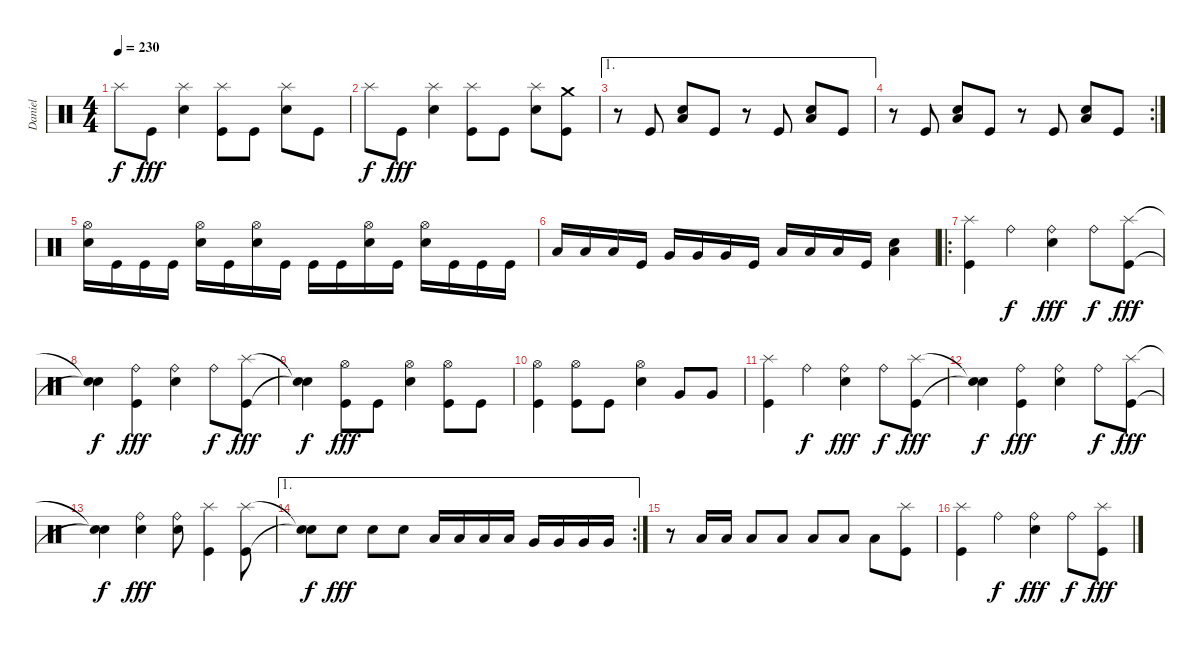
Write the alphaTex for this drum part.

\track ("Daniel" "Daniel") {instrument percussion}
\staff {score}
\articulation defaults
\ts (4 4)
\tempo 230
\clef neutral
\ks c "Splash (hit)".8{dy f} "Kick (hit)".8{dy fff}
("Electric Snare (hit)" "Splash (hit)").4 ("Kick (hit)" "Splash (hit)").8 "Kick (hit)".8 ("Electric Snare (hit)" "Splash (hit)").8 "Kick (hit)".8 |
"Splash (hit)".8{dy f} "Kick (hit)".8{dy fff} ("Electric Snare (hit)" "Splash (hit)").4 ("Kick (hit)" "Splash (hit)").8 "Kick (hit)".8 ("Electric Snare (hit)" "Splash (hit)").8 ("Kick (hit)" "Crash medium (hit)").8 |
\ae 1
r.8 "Kick (hit)".8 ("Electric Snare (hit)" "Low Floor Tom (hit)").8 "Kick (hit)".8 r.8 "Kick (hit)".8 ("Electric Snare (hit)" "Low Floor Tom (hit)").8 "Kick (hit)".8 |
\rc 2
r.8 "Kick (hit)".8 ("Electric Snare (hit)" "Low Floor Tom (hit)").8 "Kick (hit)".8 r.8 "Kick (hit)".8 ("Electric Snare (hit)" "Low Floor Tom (hit)").8 "Kick (hit)".8 |
("Electric Snare (hit)" "Hi-Hat (open)").16 "Kick (hit)".16 "Kick (hit)".16 "Kick (hit)".16 ("Electric Snare (hit)" "Hi-Hat (open)").16 "Kick (hit)".16 ("Electric Snare (hit)" "Hi-Hat (open)").16 "Kick (hit)".16 "Kick (hit)".16 "Kick (hit)".16 ("Electric Snare (hit)" "Hi-Hat (open)").16 "Kick (hit)".16 ("Electric Snare (hit)" "Hi-Hat (open)").16 "Kick (hit)".16 "Kick (hit)".16 "Kick (hit)".16 |
"Low Tom (hit)".16 "Low Tom (hit)".16 "Low Tom (hit)".16 "Kick (hit)".16 "Very Low Tom (hit)".16 "Very Low Tom (hit)".16 "Very Low Tom (hit)".16 "Kick (hit)".16 "Low Floor Tom (hit)".16 "Low Floor Tom (hit)".16 "Low Floor Tom (hit)".16 "Kick (hit)".16 ("Electric Snare (hit)" "Low Floor Tom (hit)").4 |
\ro
("Kick (hit)" "Splash (hit)").4 "Ride (bell)".4{dy f} ("Electric Snare (hit)" "Ride (bell)").4{dy fff} "Ride (bell)".8{dy f} ("Kick (hit)" "Splash (hit)").8{dy fff} |
("Snare (hit)"{t} "Snare (hit)"{t}).4{dy f} ("Kick (hit)" "Ride (bell)").4{dy fff} ("Electric Snare (hit)" "Ride (bell)").4 "Ride (bell)".8{dy f} ("Kick (hit)" "Splash (hit)").8{dy fff} |
("Snare (hit)"{t} "Snare (hit)"{t}).4{dy f} ("Kick (hit)" "Hi-Hat (open)").8{dy fff} "Kick (hit)".8 ("Electric Snare (hit)" "Hi-Hat (open)").4 ("Kick (hit)" "Hi-Hat (open)").8 "Kick (hit)".8 |
("Kick (hit)" "Hi-Hat (open)").4 ("Kick (hit)" "Hi-Hat (open)").8 "Kick (hit)".8 ("Electric Snare (hit)" "Hi-Hat (open)").4 "Very Low Tom (hit)".8 "Very Low Tom (hit)".8 |
("Kick (hit)" "Splash (hit)").4 "Ride (bell)".4{dy f} ("Electric Snare (hit)" "Ride (bell)").4{dy fff} "Ride (bell)".8{dy f} ("Kick (hit)" "Splash (hit)").8{dy fff} |
("Snare (hit)"{t} "Snare (hit)"{t}).4{dy f} ("Kick (hit)" "Ride (bell)").4{dy fff} ("Electric Snare (hit)" "Ride (bell)").4 "Ride (bell)".8{dy f} ("Kick (hit)" "Splash (hit)").8{dy fff} |
("Snare (hit)"{t} "Snare (hit)"{t}).4{dy f} ("Electric Snare (hit)" "Ride (bell)").4{dy fff} ("Electric Snare (hit)" "Ride (bell)").8 ("Kick (hit)" "Splash (hit)").4 ("Kick (hit)" "Splash (hit)").8 |
\ae 1
\rc 2
("Snare (hit)"{t} "Snare (hit)"{t}).8{dy f} "Electric Snare (hit)".8{dy fff} "Electric Snare (hit)".8 "Electric Snare (hit)".8 "Low Tom (hit)".16 "Low Tom (hit)".16 "Low Tom (hit)".16 "Low Tom (hit)".16 "Very Low Tom (hit)".16 "Very Low Tom (hit)".16 "Very Low Tom (hit)".16 "Very Low Tom (hit)".16 |
r.8 "Low Tom (hit)".16 "Low Tom (hit)".16 "Low Tom (hit)".8 "Low Tom (hit)".8 "Low Tom (hit)".8 "Low Floor Tom (hit)".8 "Low Floor Tom (hit)".8 ("Kick (hit)" "Splash (hit)").8 |
("Kick (hit)" "Splash (hit)").4 "Ride (bell)".4{dy f} ("Electric Snare (hit)" "Ride (bell)").4{dy fff} "Ride (bell)".8{dy f} ("Kick (hit)" "Splash (hit)").8{dy fff}
